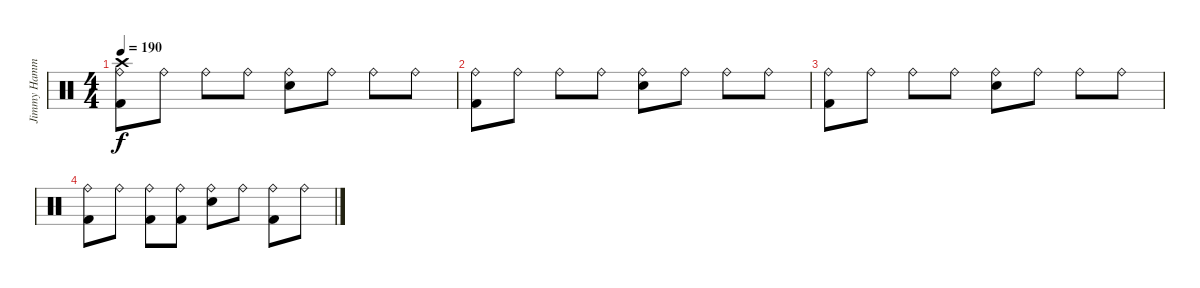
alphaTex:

\track ("Jimmy Hammer" "Jimmy Hamm") {instrument percussion}
\staff {score}
\articulation defaults
\ts (4 4)
\tempo 190
\clef neutral
\ks c
("Kick (hit) 2" "Ride (bell)" "Crash high (hit)").8{dy f volume 0} "Ride (bell)".8 "Ride (bell)".8 "Ride (bell)".8 ("Snare (hit) 2" "Ride (bell)").8 "Ride (bell)".8 "Ride (bell)".8 "Ride (bell)".8 |
("Kick (hit) 2" "Ride (bell)").8 "Ride (bell)".8 "Ride (bell)".8 "Ride (bell)".8 ("Snare (hit) 2" "Ride (bell)").8 "Ride (bell)".8 "Ride (bell)".8 "Ride (bell)".8 |
("Kick (hit) 2" "Ride (bell)").8 "Ride (bell)".8 "Ride (bell)".8 "Ride (bell)".8 ("Snare (hit) 2" "Ride (bell)").8 "Ride (bell)".8 "Ride (bell)".8 "Ride (bell)".8 |
("Kick (hit) 2" "Ride (bell)").8 "Ride (bell)".8 ("Kick (hit) 2" "Ride (bell)").8 ("Kick (hit) 2" "Ride (bell)").8 ("Snare (hit) 2" "Ride (bell)").8 "Ride (bell)".8 ("Kick (hit) 2" "Ride (bell)").8 "Ride (bell)".8
